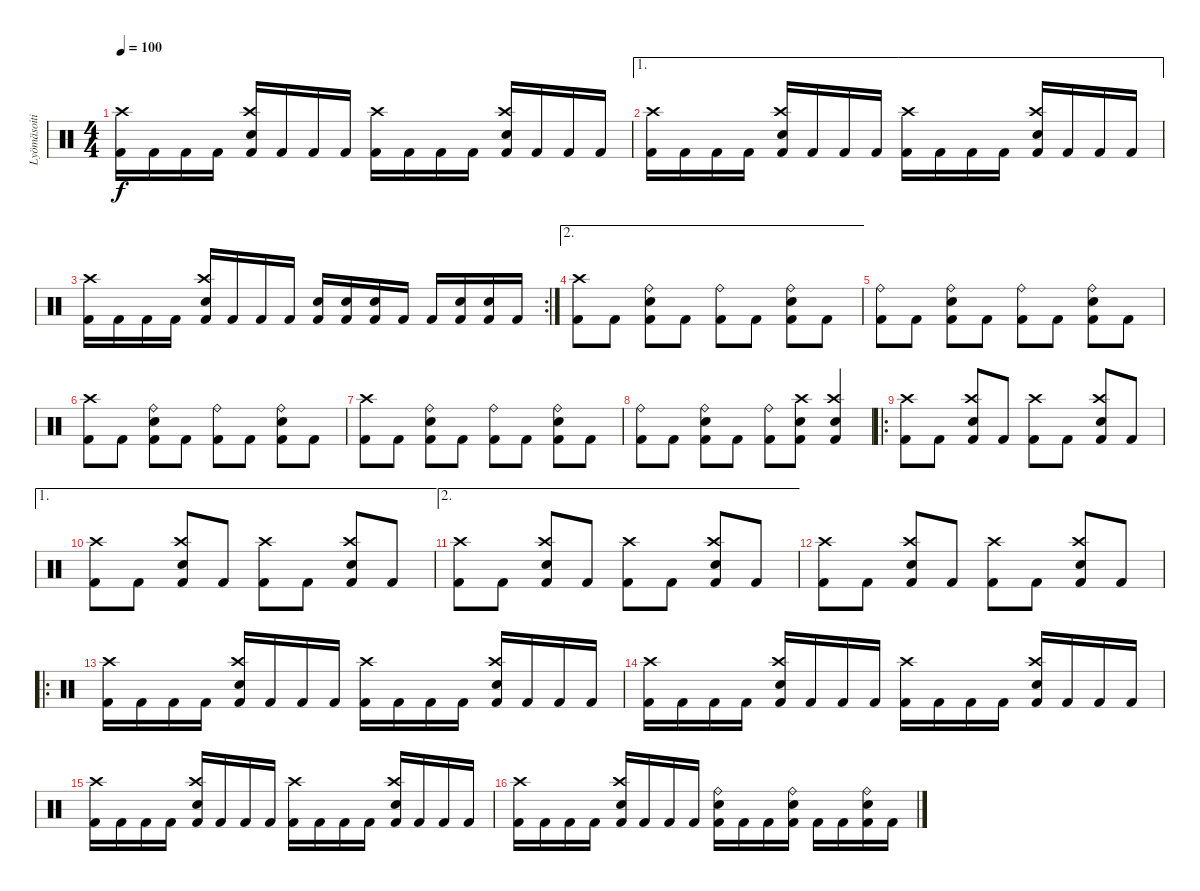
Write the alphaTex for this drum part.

\track ("Lyömäsoitin" "Lyömäsoiti") {instrument percussion}
\staff {score}
\articulation defaults
\ts (4 4)
\tempo 100
\clef neutral
\ks c
("Kick (hit) 2" "Crash high (hit)").16{dy f} "Kick (hit) 2".16 "Kick (hit) 2".16 "Kick (hit) 2".16 ("Kick (hit) 2" "Crash high (hit)" "Electric Snare (hit)").16 "Kick (hit) 2".16 "Kick (hit) 2".16 "Kick (hit) 2".16 ("Kick (hit) 2" "Crash high (hit)").16 "Kick (hit) 2".16 "Kick (hit) 2".16 "Kick (hit) 2".16 ("Kick (hit) 2" "Crash high (hit)" "Electric Snare (hit)").16 "Kick (hit) 2".16 "Kick (hit) 2".16 "Kick (hit) 2".16 |
\ae 1
("Kick (hit) 2" "Crash high (hit)").16 "Kick (hit) 2".16 "Kick (hit) 2".16 "Kick (hit) 2".16 ("Kick (hit) 2" "Crash high (hit)" "Electric Snare (hit)").16 "Kick (hit) 2".16 "Kick (hit) 2".16 "Kick (hit) 2".16 ("Kick (hit) 2" "Crash high (hit)").16 "Kick (hit) 2".16 "Kick (hit) 2".16 "Kick (hit) 2".16 ("Kick (hit) 2" "Crash high (hit)" "Electric Snare (hit)").16 "Kick (hit) 2".16 "Kick (hit) 2".16 "Kick (hit) 2".16 |
\rc 2
("Kick (hit) 2" "Crash high (hit)").16 "Kick (hit) 2".16 "Kick (hit) 2".16 "Kick (hit) 2".16 ("Kick (hit) 2" "Crash high (hit)" "Electric Snare (hit)").16 "Kick (hit) 2".16 "Kick (hit) 2".16 "Kick (hit) 2".16 ("Kick (hit) 2" "Electric Snare (hit)").16 ("Kick (hit) 2" "Electric Snare (hit)").16 ("Kick (hit) 2" "Electric Snare (hit)").16 "Kick (hit) 2".16 "Kick (hit) 2".16 ("Kick (hit) 2" "Electric Snare (hit)").16 ("Kick (hit) 2" "Electric Snare (hit)").16 "Kick (hit) 2".16 |
\ae 2
("Kick (hit) 2" "Crash high (hit)").8 "Kick (hit) 2".8 ("Kick (hit) 2" "Ride (bell)" "Electric Snare (hit)").8 "Kick (hit) 2".8 ("Kick (hit) 2" "Ride (bell)").8 "Kick (hit) 2".8 ("Kick (hit) 2" "Ride (bell)" "Electric Snare (hit)").8 "Kick (hit) 2".8 |
("Kick (hit) 2" "Ride (bell)").8 "Kick (hit) 2".8 ("Kick (hit) 2" "Ride (bell)" "Electric Snare (hit)").8 "Kick (hit) 2".8 ("Kick (hit) 2" "Ride (bell)").8 "Kick (hit) 2".8 ("Kick (hit) 2" "Ride (bell)" "Electric Snare (hit)").8 "Kick (hit) 2".8 |
("Kick (hit) 2" "Crash high (hit)").8 "Kick (hit) 2".8 ("Kick (hit) 2" "Ride (bell)" "Electric Snare (hit)").8 "Kick (hit) 2".8 ("Kick (hit) 2" "Ride (bell)").8 "Kick (hit) 2".8 ("Kick (hit) 2" "Ride (bell)" "Electric Snare (hit)").8 "Kick (hit) 2".8 |
("Kick (hit) 2" "Crash high (hit)").8 "Kick (hit) 2".8 ("Kick (hit) 2" "Ride (bell)" "Electric Snare (hit)").8 "Kick (hit) 2".8 ("Kick (hit) 2" "Ride (bell)").8 "Kick (hit) 2".8 ("Kick (hit) 2" "Ride (bell)" "Electric Snare (hit)").8 "Kick (hit) 2".8 |
("Kick (hit) 2" "Ride (bell)").8 "Kick (hit) 2".8 ("Kick (hit) 2" "Ride (bell)" "Electric Snare (hit)").8 "Kick (hit) 2".8 ("Kick (hit) 2" "Ride (bell)").8 ("Kick (hit) 2" "Electric Snare (hit)" "Crash high (hit)").8 ("Kick (hit) 2" "Electric Snare (hit)" "Crash high (hit)").4 |
\ro
("Kick (hit) 2" "Crash high (hit)").8 "Kick (hit) 2".8 ("Kick (hit) 2" "Crash high (hit)" "Electric Snare (hit)").8 "Kick (hit) 2".8 ("Kick (hit) 2" "Crash high (hit)").8 "Kick (hit) 2".8 ("Kick (hit) 2" "Crash high (hit)" "Electric Snare (hit)").8 "Kick (hit) 2".8 |
\ae 1
("Kick (hit) 2" "Crash high (hit)").8 "Kick (hit) 2".8 ("Kick (hit) 2" "Crash high (hit)" "Electric Snare (hit)").8 "Kick (hit) 2".8 ("Kick (hit) 2" "Crash high (hit)").8 "Kick (hit) 2".8 ("Kick (hit) 2" "Crash high (hit)" "Electric Snare (hit)").8 "Kick (hit) 2".8 |
\ae 2
("Kick (hit) 2" "Crash high (hit)").8 "Kick (hit) 2".8 ("Kick (hit) 2" "Crash high (hit)" "Electric Snare (hit)").8 "Kick (hit) 2".8 ("Kick (hit) 2" "Crash high (hit)").8 "Kick (hit) 2".8 ("Kick (hit) 2" "Crash high (hit)" "Electric Snare (hit)").8 "Kick (hit) 2".8 |
("Kick (hit) 2" "Crash high (hit)").8 "Kick (hit) 2".8 ("Kick (hit) 2" "Crash high (hit)" "Electric Snare (hit)").8 "Kick (hit) 2".8 ("Kick (hit) 2" "Crash high (hit)").8 "Kick (hit) 2".8 ("Kick (hit) 2" "Crash high (hit)" "Electric Snare (hit)").8 "Kick (hit) 2".8 |
\ro
("Kick (hit) 2" "Crash high (hit)").16 "Kick (hit) 2".16 "Kick (hit) 2".16 "Kick (hit) 2".16 ("Kick (hit) 2" "Crash high (hit)" "Electric Snare (hit)").16 "Kick (hit) 2".16 "Kick (hit) 2".16 "Kick (hit) 2".16 ("Kick (hit) 2" "Crash high (hit)").16 "Kick (hit) 2".16 "Kick (hit) 2".16 "Kick (hit) 2".16 ("Kick (hit) 2" "Crash high (hit)" "Electric Snare (hit)").16 "Kick (hit) 2".16 "Kick (hit) 2".16 "Kick (hit) 2".16 |
("Kick (hit) 2" "Crash high (hit)").16 "Kick (hit) 2".16 "Kick (hit) 2".16 "Kick (hit) 2".16 ("Kick (hit) 2" "Crash high (hit)" "Electric Snare (hit)").16 "Kick (hit) 2".16 "Kick (hit) 2".16 "Kick (hit) 2".16 ("Kick (hit) 2" "Crash high (hit)").16 "Kick (hit) 2".16 "Kick (hit) 2".16 "Kick (hit) 2".16 ("Kick (hit) 2" "Crash high (hit)" "Electric Snare (hit)").16 "Kick (hit) 2".16 "Kick (hit) 2".16 "Kick (hit) 2".16 |
("Kick (hit) 2" "Crash high (hit)").16 "Kick (hit) 2".16 "Kick (hit) 2".16 "Kick (hit) 2".16 ("Kick (hit) 2" "Crash high (hit)" "Electric Snare (hit)").16 "Kick (hit) 2".16 "Kick (hit) 2".16 "Kick (hit) 2".16 ("Kick (hit) 2" "Crash high (hit)").16 "Kick (hit) 2".16 "Kick (hit) 2".16 "Kick (hit) 2".16 ("Kick (hit) 2" "Crash high (hit)" "Electric Snare (hit)").16 "Kick (hit) 2".16 "Kick (hit) 2".16 "Kick (hit) 2".16 |
("Kick (hit) 2" "Crash high (hit)").16 "Kick (hit) 2".16 "Kick (hit) 2".16 "Kick (hit) 2".16 ("Kick (hit) 2" "Crash high (hit)" "Electric Snare (hit)").16 "Kick (hit) 2".16 "Kick (hit) 2".16 "Kick (hit) 2".16 ("Kick (hit) 2" "Electric Snare (hit)" "Ride (bell)").16 "Kick (hit) 2".16 "Kick (hit) 2".16 ("Kick (hit) 2" "Electric Snare (hit)" "Ride (bell)").16 "Kick (hit) 2".16 "Kick (hit) 2".16 ("Kick (hit) 2" "Electric Snare (hit)" "Ride (bell)").16 "Kick (hit) 2".16
